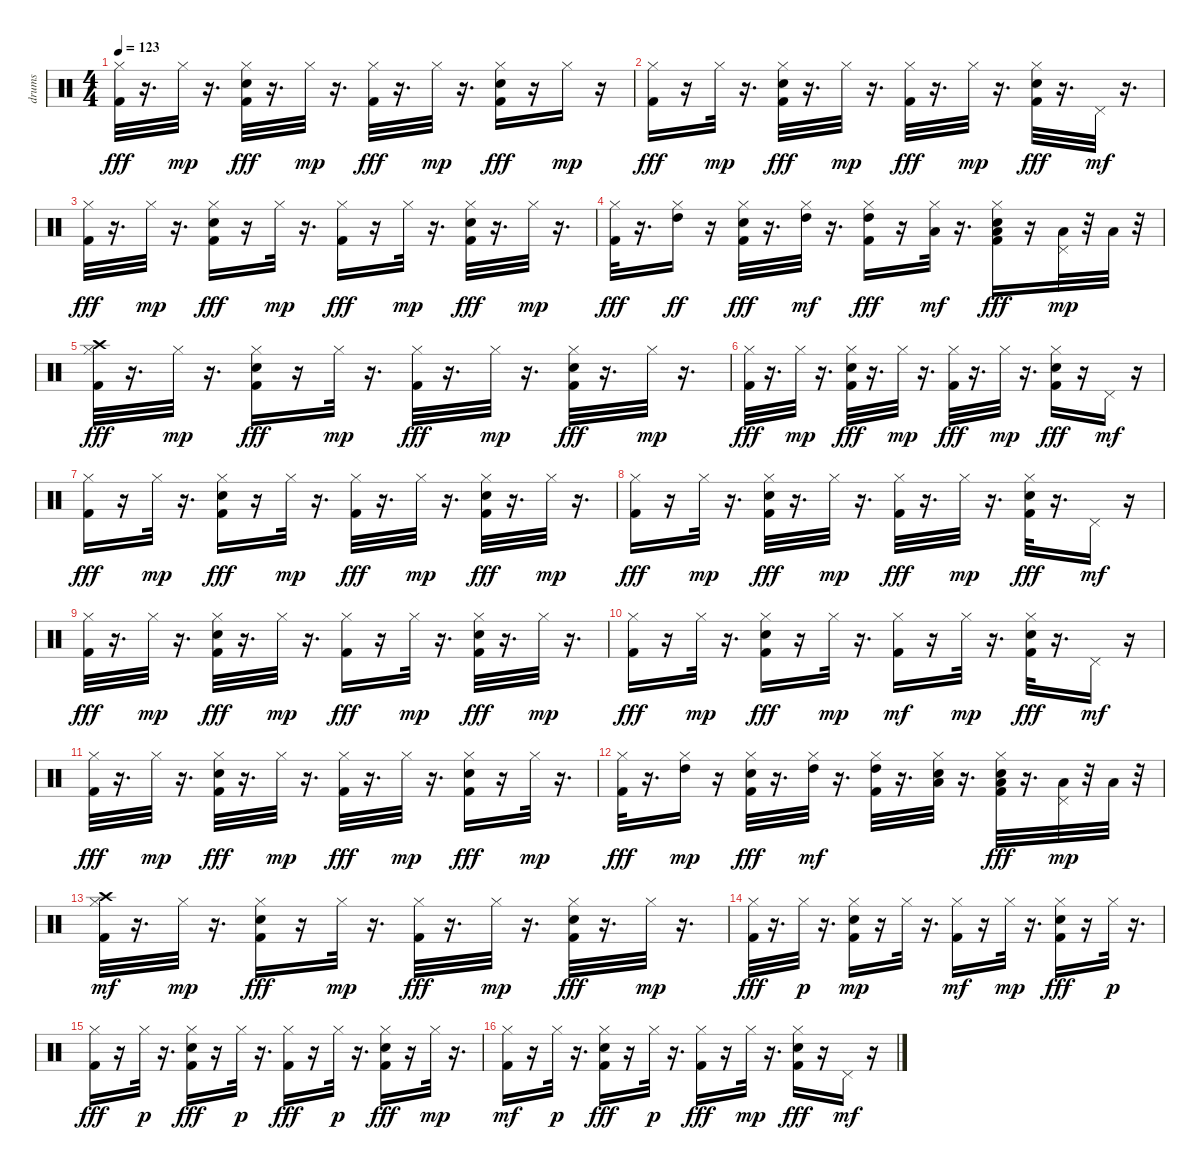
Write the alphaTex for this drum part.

\track ("drums   " "drums   ") {instrument percussion}
\staff {score}
\articulation defaults
\ts (4 4)
\tempo 123
\clef neutral
\ks c
("Hi-Hat (closed)" "Kick (hit) 2").32{dy fff} r.16{d} "Hi-Hat (closed)".32{dy mp} r.16{d} ("Hi-Hat (closed)" "Kick (hit) 2" "Snare (hit) 2").32{dy fff} r.16{d} "Hi-Hat (closed)".32{dy mp} r.16{d} ("Hi-Hat (closed)" "Kick (hit) 2").32{dy fff} r.16{d} "Hi-Hat (closed)".32{dy mp} r.16{d} ("Kick (hit) 2" "Hi-Hat (closed)" "Snare (hit) 2").16{dy fff} r.16 "Hi-Hat (closed)".16{dy mp} r.16 |
("Hi-Hat (closed)" "Kick (hit) 2").16{dy fff} r.16 "Hi-Hat (closed)".32{dy mp} r.16{d} ("Kick (hit) 2" "Hi-Hat (closed)" "Snare (hit) 2").32{dy fff} r.16{d} "Hi-Hat (closed)".32{dy mp} r.16{d} ("Hi-Hat (closed)" "Kick (hit) 2").32{dy fff} r.16{d} "Hi-Hat (closed)".32{dy mp} r.16{d} ("Kick (hit) 2" "Hi-Hat (closed)" "Snare (hit) 2").32{dy fff} r.16{d} "Pedal Hi-Hat (hit)".32{dy mf} r.16{d} |
("Hi-Hat (closed)" "Kick (hit) 2").32{dy fff} r.16{d} "Hi-Hat (closed)".32{dy mp} r.16{d} ("Kick (hit) 2" "Hi-Hat (closed)" "Snare (hit) 2").16{dy fff} r.16 "Hi-Hat (closed)".32{dy mp} r.16{d} ("Hi-Hat (closed)" "Kick (hit) 2").16{dy fff} r.16 "Hi-Hat (closed)".32{dy mp} r.16{d} ("Kick (hit) 2" "Hi-Hat (closed)" "Snare (hit) 2").32{dy fff} r.16{d} "Hi-Hat (closed)".32{dy mp} r.16{d} |
("Kick (hit) 2" "Hi-Hat (closed)").32{dy fff} r.16{d} ("Hi-Hat (closed)" "High Tom (hit)").16{dy ff} r.16 ("Kick (hit) 2" "Hi-Hat (closed)" "Snare (hit) 2").32{dy fff} r.16{d} ("Hi-Hat (closed)" "High Tom (hit)").32{dy mf} r.16{d} ("Hi-Hat (closed)" "Kick (hit) 2" "High Tom (hit)").16{dy fff} r.16 ("Hi-Hat (closed)" "Low Tom (hit)").32{dy mf} r.16{d} ("Kick (hit) 2" "Hi-Hat (closed)" "Snare (hit) 2" "Low Tom (hit)").16{dy fff} r.16 ("Pedal Hi-Hat (hit)" "Low Floor Tom (hit)").32{dy mp} r.32 "Low Floor Tom (hit)".32 r.32 |
("Hi-Hat (closed)" "Kick (hit) 2" "Crash high (hit)").32{dy fff} r.16{d} "Hi-Hat (closed)".32{dy mp} r.16{d} ("Kick (hit) 2" "Hi-Hat (closed)" "Snare (hit) 2").16{dy fff} r.16 "Hi-Hat (closed)".32{dy mp} r.16{d} ("Hi-Hat (closed)" "Kick (hit) 2").32{dy fff} r.16{d} "Hi-Hat (closed)".32{dy mp} r.16{d} ("Hi-Hat (closed)" "Snare (hit) 2" "Kick (hit) 2").32{dy fff} r.16{d} "Hi-Hat (closed)".32{dy mp} r.16{d} |
("Hi-Hat (closed)" "Kick (hit) 2").32{dy fff} r.16{d} "Hi-Hat (closed)".32{dy mp} r.16{d} ("Kick (hit) 2" "Hi-Hat (closed)" "Snare (hit) 2").32{dy fff} r.16{d} "Hi-Hat (closed)".32{dy mp} r.16{d} ("Kick (hit) 2" "Hi-Hat (closed)").32{dy fff} r.16{d} "Hi-Hat (closed)".32{dy mp} r.16{d} ("Kick (hit) 2" "Hi-Hat (closed)" "Snare (hit) 2").16{dy fff} r.16 "Pedal Hi-Hat (hit)".16{dy mf} r.16 |
("Hi-Hat (closed)" "Kick (hit) 2").16{dy fff} r.16 "Hi-Hat (closed)".32{dy mp} r.16{d} ("Hi-Hat (closed)" "Snare (hit) 2" "Kick (hit) 2").16{dy fff} r.16 "Hi-Hat (closed)".32{dy mp} r.16{d} ("Hi-Hat (closed)" "Kick (hit) 2").32{dy fff} r.16{d} "Hi-Hat (closed)".32{dy mp} r.16{d} ("Kick (hit) 2" "Hi-Hat (closed)" "Snare (hit) 2").32{dy fff} r.16{d} "Hi-Hat (closed)".32{dy mp} r.16{d} |
("Hi-Hat (closed)" "Kick (hit) 2").16{dy fff} r.16 "Hi-Hat (closed)".32{dy mp} r.16{d} ("Hi-Hat (closed)" "Kick (hit) 2" "Snare (hit) 2").32{dy fff} r.16{d} "Hi-Hat (closed)".32{dy mp} r.16{d} ("Kick (hit) 2" "Hi-Hat (closed)").32{dy fff} r.16{d} "Hi-Hat (closed)".32{dy mp} r.16{d} ("Kick (hit) 2" "Hi-Hat (closed)" "Snare (hit) 2").32{dy fff} r.16{d} "Pedal Hi-Hat (hit)".16{dy mf} r.16 |
("Hi-Hat (closed)" "Kick (hit) 2").32{dy fff} r.16{d} "Hi-Hat (closed)".32{dy mp} r.16{d} ("Hi-Hat (closed)" "Kick (hit) 2" "Snare (hit) 2").32{dy fff} r.16{d} "Hi-Hat (closed)".32{dy mp} r.16{d} ("Hi-Hat (closed)" "Kick (hit) 2").16{dy fff} r.16 "Hi-Hat (closed)".32{dy mp} r.16{d} ("Hi-Hat (closed)" "Snare (hit) 2" "Kick (hit) 2").32{dy fff} r.16{d} "Hi-Hat (closed)".32{dy mp} r.16{d} |
("Hi-Hat (closed)" "Kick (hit) 2").16{dy fff} r.16 "Hi-Hat (closed)".32{dy mp} r.16{d} ("Kick (hit) 2" "Hi-Hat (closed)" "Snare (hit) 2").16{dy fff} r.16 "Hi-Hat (closed)".32{dy mp} r.16{d} ("Kick (hit) 2" "Hi-Hat (closed)").16{dy mf} r.16 "Hi-Hat (closed)".32{dy mp} r.16{d} ("Kick (hit) 2" "Hi-Hat (closed)" "Snare (hit) 2").32{dy fff} r.16{d} "Pedal Hi-Hat (hit)".16{dy mf} r.16 |
("Hi-Hat (closed)" "Kick (hit) 2").32{dy fff} r.16{d} "Hi-Hat (closed)".32{dy mp} r.16{d} ("Kick (hit) 2" "Hi-Hat (closed)" "Snare (hit) 2").32{dy fff} r.16{d} "Hi-Hat (closed)".32{dy mp} r.16{d} ("Hi-Hat (closed)" "Kick (hit) 2").32{dy fff} r.16{d} "Hi-Hat (closed)".32{dy mp} r.16{d} ("Snare (hit) 2" "Hi-Hat (closed)" "Kick (hit) 2").16{dy fff} r.16 "Hi-Hat (closed)".32{dy mp} r.16{d} |
("Hi-Hat (closed)" "Kick (hit) 2").32{dy fff} r.16{d} ("Hi-Hat (closed)" "High Tom (hit)").16{dy mp} r.16 ("Kick (hit) 2" "Hi-Hat (closed)" "Snare (hit) 2").32{dy fff} r.16{d} ("Hi-Hat (closed)" "High Tom (hit)").32{dy mf} r.16{d} ("Hi-Hat (closed)" "Kick (hit) 2" "High Tom (hit)").32 r.16{d} ("Hi-Hat (closed)" "Snare (hit) 2" "Low Tom (hit)").32 r.16{d} ("Kick (hit) 2" "Hi-Hat (closed)" "Snare (hit) 2" "Low Tom (hit)").32{dy fff} r.16{d} ("Pedal Hi-Hat (hit)" "Low Floor Tom (hit)").32{dy mp} r.32 "Low Floor Tom (hit)".32 r.32 |
("Hi-Hat (closed)" "Kick (hit) 2" "Crash high (hit)").32{dy mf} r.16{d} "Hi-Hat (closed)".32{dy mp} r.16{d} ("Hi-Hat (closed)" "Kick (hit) 2" "Snare (hit) 2").16{dy fff} r.16 "Hi-Hat (closed)".32{dy mp} r.16{d} ("Hi-Hat (closed)" "Kick (hit) 2").32{dy fff} r.16{d} "Hi-Hat (closed)".32{dy mp} r.16{d} ("Kick (hit) 2" "Hi-Hat (closed)" "Snare (hit) 2").32{dy fff} r.16{d} "Hi-Hat (closed)".32{dy mp} r.16{d} |
("Hi-Hat (closed)" "Kick (hit) 2").32{dy fff} r.16{d} "Hi-Hat (closed)".32{dy p} r.16{d} ("Kick (hit) 2" "Snare (hit) 2" "Hi-Hat (closed)").16{dy mp} r.16 "Hi-Hat (closed)".32 r.16{d} ("Kick (hit) 2" "Hi-Hat (closed)").16{dy mf} r.16 "Hi-Hat (closed)".32{dy mp} r.16{d} ("Kick (hit) 2" "Hi-Hat (closed)" "Snare (hit) 2").16{dy fff} r.16 "Hi-Hat (closed)".32{dy p} r.16{d} |
("Hi-Hat (closed)" "Kick (hit) 2").16{dy fff} r.16 "Hi-Hat (closed)".32{dy p} r.16{d} ("Kick (hit) 2" "Hi-Hat (closed)" "Snare (hit) 2").16{dy fff} r.16 "Hi-Hat (closed)".32{dy p} r.16{d} ("Hi-Hat (closed)" "Kick (hit) 2").16{dy fff} r.16 "Hi-Hat (closed)".32{dy p} r.16{d} ("Kick (hit) 2" "Hi-Hat (closed)" "Snare (hit) 2").16{dy fff} r.16 "Hi-Hat (closed)".32{dy mp} r.16{d} |
("Kick (hit) 2" "Hi-Hat (closed)").16{dy mf} r.16 "Hi-Hat (closed)".32{dy p} r.16{d} ("Kick (hit) 2" "Hi-Hat (closed)" "Snare (hit) 2").16{dy fff} r.16 "Hi-Hat (closed)".32{dy p} r.16{d} ("Hi-Hat (closed)" "Kick (hit) 2").16{dy fff} r.16 "Hi-Hat (closed)".32{dy mp} r.16{d} ("Kick (hit) 2" "Hi-Hat (closed)" "Snare (hit) 2").16{dy fff} r.16 "Pedal Hi-Hat (hit)".16{dy mf} r.16
